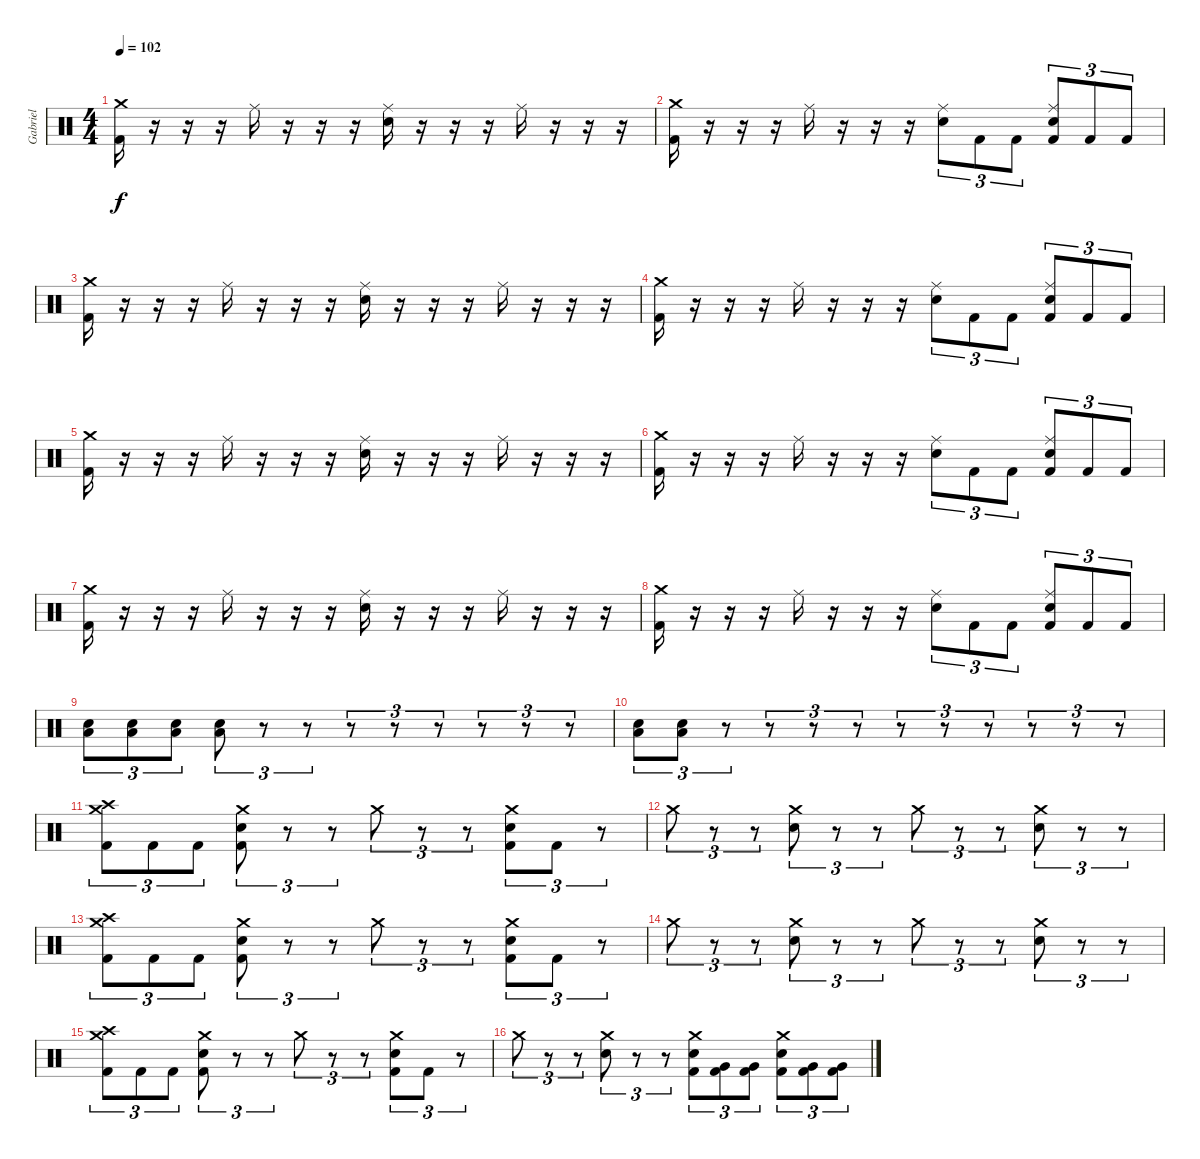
\track ("Gabriel" "Gabriel") {instrument percussion}
\staff {score}
\articulation defaults
\ts (4 4)
\tempo 102
\clef neutral
\ks c
("Crash medium (hit)" "Kick (hit) 2").16{dy f} r.16 r.16 r.16 "Ride (middle)".16 r.16 r.16 r.16 ("Ride (middle)" "Electric Snare (hit)").16 r.16 r.16 r.16 "Ride (middle)".16 r.16 r.16 r.16 |
("Crash medium (hit)" "Kick (hit) 2").16 r.16 r.16 r.16 "Ride (middle)".16 r.16 r.16 r.16 ("Ride (middle)" "Electric Snare (hit)").8{tu (3 2)} "Kick (hit) 2".8{tu (3 2)} "Kick (hit) 2".8{tu (3 2)} ("Ride (middle)" "Electric Snare (hit)" "Kick (hit) 2").8{tu (3 2)} "Kick (hit) 2".8{tu (3 2)} "Kick (hit) 2".8{tu (3 2)} |
("Crash medium (hit)" "Kick (hit) 2").16 r.16 r.16 r.16 "Ride (middle)".16 r.16 r.16 r.16 ("Ride (middle)" "Electric Snare (hit)").16 r.16 r.16 r.16 "Ride (middle)".16 r.16 r.16 r.16 |
("Crash medium (hit)" "Kick (hit) 2").16 r.16 r.16 r.16 "Ride (middle)".16 r.16 r.16 r.16 ("Ride (middle)" "Electric Snare (hit)").8{tu (3 2)} "Kick (hit) 2".8{tu (3 2)} "Kick (hit) 2".8{tu (3 2)} ("Ride (middle)" "Electric Snare (hit)" "Kick (hit) 2").8{tu (3 2)} "Kick (hit) 2".8{tu (3 2)} "Kick (hit) 2".8{tu (3 2)} |
("Crash medium (hit)" "Kick (hit) 2").16 r.16 r.16 r.16 "Ride (middle)".16 r.16 r.16 r.16 ("Ride (middle)" "Electric Snare (hit)").16 r.16 r.16 r.16 "Ride (middle)".16 r.16 r.16 r.16 |
("Crash medium (hit)" "Kick (hit) 2").16 r.16 r.16 r.16 "Ride (middle)".16 r.16 r.16 r.16 ("Ride (middle)" "Electric Snare (hit)").8{tu (3 2)} "Kick (hit) 2".8{tu (3 2)} "Kick (hit) 2".8{tu (3 2)} ("Ride (middle)" "Electric Snare (hit)" "Kick (hit) 2").8{tu (3 2)} "Kick (hit) 2".8{tu (3 2)} "Kick (hit) 2".8{tu (3 2)} |
("Crash medium (hit)" "Kick (hit) 2").16 r.16 r.16 r.16 "Ride (middle)".16 r.16 r.16 r.16 ("Ride (middle)" "Electric Snare (hit)").16 r.16 r.16 r.16 "Ride (middle)".16 r.16 r.16 r.16 |
("Crash medium (hit)" "Kick (hit) 2").16 r.16 r.16 r.16 "Ride (middle)".16 r.16 r.16 r.16 ("Ride (middle)" "Electric Snare (hit)").8{tu (3 2)} "Kick (hit) 2".8{tu (3 2)} "Kick (hit) 2".8{tu (3 2)} ("Ride (middle)" "Electric Snare (hit)" "Kick (hit) 2").8{tu (3 2)} "Kick (hit) 2".8{tu (3 2)} "Kick (hit) 2".8{tu (3 2)} |
("Low Tom (hit)" "Electric Snare (hit)").8{tu (3 2)} ("Low Tom (hit)" "Electric Snare (hit)").8{tu (3 2)} ("Low Tom (hit)" "Electric Snare (hit)").8{tu (3 2)} ("Low Tom (hit)" "Electric Snare (hit)").8{tu (3 2)} r.8{tu (3 2)} r.8{tu (3 2)} r.8{tu (3 2)} r.8{tu (3 2)} r.8{tu (3 2)} r.8{tu (3 2)} r.8{tu (3 2)} r.8{tu (3 2)} |
("Low Tom (hit)" "Electric Snare (hit)").8{tu (3 2)} ("Low Tom (hit)" "Electric Snare (hit)").8{tu (3 2)} r.8{tu (3 2)} r.8{tu (3 2)} r.8{tu (3 2)} r.8{tu (3 2)} r.8{tu (3 2)} r.8{tu (3 2)} r.8{tu (3 2)} r.8{tu (3 2)} r.8{tu (3 2)} r.8{tu (3 2)} |
("Crash high (hit)" "Crash medium (hit)" "Kick (hit) 2").8{tu (3 2)} "Kick (hit) 2".8{tu (3 2)} "Kick (hit) 2".8{tu (3 2)} ("Crash medium (hit)" "Electric Snare (hit)" "Kick (hit) 2").8{tu (3 2)} r.8{tu (3 2)} r.8{tu (3 2)} "Crash medium (hit)".8{tu (3 2)} r.8{tu (3 2)} r.8{tu (3 2)} ("Crash medium (hit)" "Electric Snare (hit)" "Kick (hit) 2").8{tu (3 2)} "Kick (hit) 2".8{tu (3 2)} r.8{tu (3 2)} |
"Crash medium (hit)".8{tu (3 2)} r.8{tu (3 2)} r.8{tu (3 2)} ("Crash medium (hit)" "Electric Snare (hit)").8{tu (3 2)} r.8{tu (3 2)} r.8{tu (3 2)} "Crash medium (hit)".8{tu (3 2)} r.8{tu (3 2)} r.8{tu (3 2)} ("Crash medium (hit)" "Electric Snare (hit)").8{tu (3 2)} r.8{tu (3 2)} r.8{tu (3 2)} |
("Crash high (hit)" "Crash medium (hit)" "Kick (hit) 2").8{tu (3 2)} "Kick (hit) 2".8{tu (3 2)} "Kick (hit) 2".8{tu (3 2)} ("Crash medium (hit)" "Electric Snare (hit)" "Kick (hit) 2").8{tu (3 2)} r.8{tu (3 2)} r.8{tu (3 2)} "Crash medium (hit)".8{tu (3 2)} r.8{tu (3 2)} r.8{tu (3 2)} ("Crash medium (hit)" "Electric Snare (hit)" "Kick (hit) 2").8{tu (3 2)} "Kick (hit) 2".8{tu (3 2)} r.8{tu (3 2)} |
"Crash medium (hit)".8{tu (3 2)} r.8{tu (3 2)} r.8{tu (3 2)} ("Crash medium (hit)" "Electric Snare (hit)").8{tu (3 2)} r.8{tu (3 2)} r.8{tu (3 2)} "Crash medium (hit)".8{tu (3 2)} r.8{tu (3 2)} r.8{tu (3 2)} ("Crash medium (hit)" "Electric Snare (hit)").8{tu (3 2)} r.8{tu (3 2)} r.8{tu (3 2)} |
("Crash high (hit)" "Crash medium (hit)" "Kick (hit) 2").8{tu (3 2)} "Kick (hit) 2".8{tu (3 2)} "Kick (hit) 2".8{tu (3 2)} ("Crash medium (hit)" "Electric Snare (hit)" "Kick (hit) 2").8{tu (3 2)} r.8{tu (3 2)} r.8{tu (3 2)} "Crash medium (hit)".8{tu (3 2)} r.8{tu (3 2)} r.8{tu (3 2)} ("Crash medium (hit)" "Electric Snare (hit)" "Kick (hit) 2").8{tu (3 2)} "Kick (hit) 2".8{tu (3 2)} r.8{tu (3 2)} |
"Crash medium (hit)".8{tu (3 2)} r.8{tu (3 2)} r.8{tu (3 2)} ("Crash medium (hit)" "Electric Snare (hit)").8{tu (3 2)} r.8{tu (3 2)} r.8{tu (3 2)} ("Crash medium (hit)" "Electric Snare (hit)" "Kick (hit) 2").8{tu (3 2)} ("Very Low Tom (hit)" "Kick (hit) 2").8{tu (3 2)} ("Very Low Tom (hit)" "Kick (hit) 2").8{tu (3 2)} ("Crash medium (hit)" "Electric Snare (hit)" "Kick (hit) 2").8{tu (3 2)} ("Very Low Tom (hit)" "Kick (hit) 2").8{tu (3 2)} ("Very Low Tom (hit)" "Kick (hit) 2").8{tu (3 2)}
